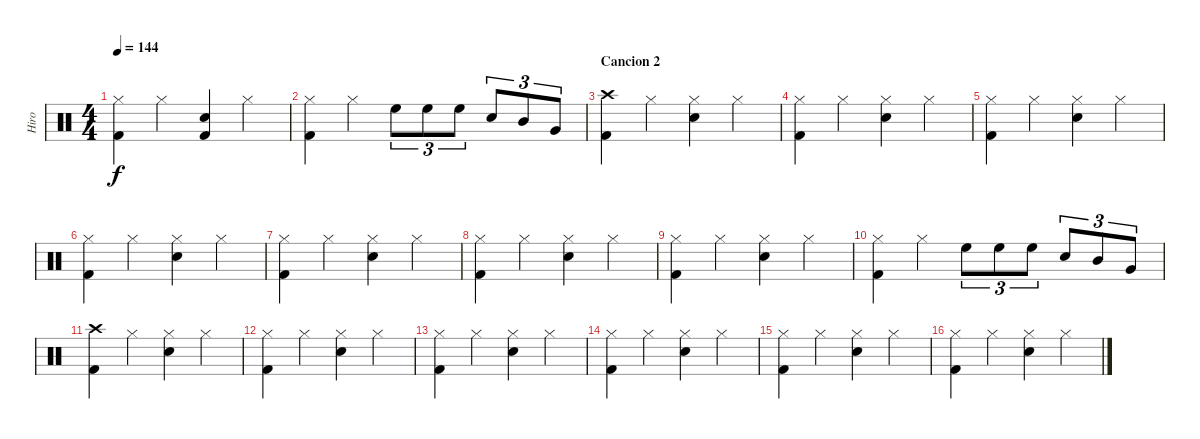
\track ("Hiro" "Hiro") {instrument percussion}
\staff {score}
\articulation defaults
\ts (4 4)
\tempo 144
\clef neutral
\ks c
("Hi-Hat (closed)" "Kick (hit) 2").4{dy f} "Hi-Hat (closed)".4 ("Kick (hit) 2" "Snare (hit) 2").4 "Hi-Hat (closed)".4 |
("Hi-Hat (closed)" "Kick (hit) 2").4 "Hi-Hat (closed)".4 "High Floor Tom (hit)".8{tu (3 2)} "High Floor Tom (hit)".8{tu (3 2)} "High Floor Tom (hit)".8{tu (3 2)} "Snare (hit) 2".8{tu (3 2)} "Mid Tom (hit)".8{tu (3 2)} "Very Low Tom (hit)".8{tu (3 2)} |
\section ("" "Cancion 2")
("Crash high (hit)" "Kick (hit) 2").4 "Hi-Hat (closed)".4 ("Hi-Hat (closed)" "Snare (hit) 2").4 "Hi-Hat (closed)".4 |
("Kick (hit) 2" "Hi-Hat (closed)").4 "Hi-Hat (closed)".4 ("Snare (hit) 2" "Hi-Hat (closed)").4 "Hi-Hat (closed)".4 |
("Hi-Hat (closed)" "Kick (hit) 2").4 "Hi-Hat (closed)".4 ("Hi-Hat (closed)" "Snare (hit) 2").4 "Hi-Hat (closed)".4 |
("Hi-Hat (closed)" "Kick (hit) 2").4 "Hi-Hat (closed)".4 ("Hi-Hat (closed)" "Snare (hit) 2").4 "Hi-Hat (closed)".4 |
("Hi-Hat (closed)" "Kick (hit) 2").4 "Hi-Hat (closed)".4 ("Hi-Hat (closed)" "Snare (hit) 2").4 "Hi-Hat (closed)".4 |
("Hi-Hat (closed)" "Kick (hit) 2").4 "Hi-Hat (closed)".4 ("Hi-Hat (closed)" "Snare (hit) 2").4 "Hi-Hat (closed)".4 |
("Hi-Hat (closed)" "Kick (hit) 2").4 "Hi-Hat (closed)".4 ("Hi-Hat (closed)" "Snare (hit) 2").4 "Hi-Hat (closed)".4 |
("Kick (hit) 2" "Hi-Hat (closed)").4 "Hi-Hat (closed)".4 "High Floor Tom (hit)".8{tu (3 2)} "High Floor Tom (hit)".8{tu (3 2)} "High Floor Tom (hit)".8{tu (3 2)} "Snare (hit) 2".8{tu (3 2)} "Mid Tom (hit)".8{tu (3 2)} "Very Low Tom (hit)".8{tu (3 2)} |
("Crash high (hit)" "Kick (hit) 2").4 "Hi-Hat (closed)".4 ("Hi-Hat (closed)" "Snare (hit) 2").4 "Hi-Hat (closed)".4 |
("Kick (hit) 2" "Hi-Hat (closed)").4 "Hi-Hat (closed)".4 ("Snare (hit) 2" "Hi-Hat (closed)").4 "Hi-Hat (closed)".4 |
("Kick (hit) 2" "Hi-Hat (closed)").4 "Hi-Hat (closed)".4 ("Snare (hit) 2" "Hi-Hat (closed)").4 "Hi-Hat (closed)".4 |
("Kick (hit) 2" "Hi-Hat (closed)").4 "Hi-Hat (closed)".4 ("Snare (hit) 2" "Hi-Hat (closed)").4 "Hi-Hat (closed)".4 |
("Kick (hit) 2" "Hi-Hat (closed)").4 "Hi-Hat (closed)".4 ("Snare (hit) 2" "Hi-Hat (closed)").4 "Hi-Hat (closed)".4 |
("Hi-Hat (closed)" "Kick (hit) 2").4 "Hi-Hat (closed)".4 ("Snare (hit) 2" "Hi-Hat (closed)").4 "Hi-Hat (closed)".4
